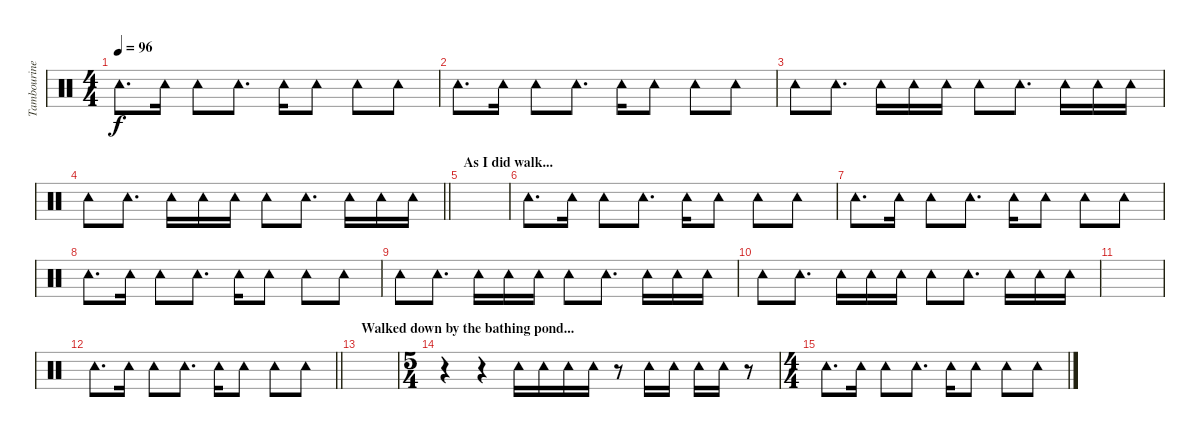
\track ("Tambourine" "Tambourine") {instrument percussion}
\staff {score}
\articulation defaults
\ts (4 4)
\tempo 96
\clef neutral
\ks c "Tambourine (hit)".8{d dy f} "Tambourine (hit)".16 "Tambourine (hit)".8 "Tambourine (hit)".8{d} "Tambourine (hit)".16 "Tambourine (hit)".8 "Tambourine (hit)".8 "Tambourine (hit)".8
|
"Tambourine (hit)".8{d} "Tambourine (hit)".16 "Tambourine (hit)".8 "Tambourine (hit)".8{d} "Tambourine (hit)".16 "Tambourine (hit)".8 "Tambourine (hit)".8 "Tambourine (hit)".8 |
"Tambourine (hit)".8 "Tambourine (hit)".8{d} "Tambourine (hit)".16 "Tambourine (hit)".16 "Tambourine (hit)".16 "Tambourine (hit)".8 "Tambourine (hit)".8{d} "Tambourine (hit)".16 "Tambourine (hit)".16 "Tambourine (hit)".16 |
\barLineRight lightlight "Tambourine (hit)".8 "Tambourine (hit)".8{d} "Tambourine (hit)".16 "Tambourine (hit)".16 "Tambourine (hit)".16 "Tambourine (hit)".8 "Tambourine (hit)".8{d} "Tambourine (hit)".16 "Tambourine (hit)".16 "Tambourine (hit)".16
|
\section ("" "As I did walk...")
|
"Tambourine (hit)".8{d} "Tambourine (hit)".16 "Tambourine (hit)".8 "Tambourine (hit)".8{d} "Tambourine (hit)".16 "Tambourine (hit)".8 "Tambourine (hit)".8 "Tambourine (hit)".8 |
"Tambourine (hit)".8{d} "Tambourine (hit)".16 "Tambourine (hit)".8 "Tambourine (hit)".8{d} "Tambourine (hit)".16 "Tambourine (hit)".8 "Tambourine (hit)".8 "Tambourine (hit)".8 |
"Tambourine (hit)".8{d} "Tambourine (hit)".16 "Tambourine (hit)".8 "Tambourine (hit)".8{d} "Tambourine (hit)".16 "Tambourine (hit)".8 "Tambourine (hit)".8 "Tambourine (hit)".8 |
"Tambourine (hit)".8 "Tambourine (hit)".8{d} "Tambourine (hit)".16 "Tambourine (hit)".16 "Tambourine (hit)".16 "Tambourine (hit)".8 "Tambourine (hit)".8{d} "Tambourine (hit)".16 "Tambourine (hit)".16 "Tambourine (hit)".16 |
"Tambourine (hit)".8 "Tambourine (hit)".8{d} "Tambourine (hit)".16 "Tambourine (hit)".16 "Tambourine (hit)".16 "Tambourine (hit)".8 "Tambourine (hit)".8{d} "Tambourine (hit)".16 "Tambourine (hit)".16 "Tambourine (hit)".16 |
|
\barLineRight lightlight "Tambourine (hit)".8{d} "Tambourine (hit)".16 "Tambourine (hit)".8 "Tambourine (hit)".8{d} "Tambourine (hit)".16 "Tambourine (hit)".8 "Tambourine (hit)".8 "Tambourine (hit)".8
|
\section ("" "Walked down by the bathing pond...")
|
\ts (5 4)
r.4 r.4 "Tambourine (hit)".16 "Tambourine (hit)".16 "Tambourine (hit)".16 "Tambourine (hit)".16 r.8 "Tambourine (hit)".16 "Tambourine (hit)".16 "Tambourine (hit)".16 "Tambourine (hit)".16 r.8 |
\ts (4 4)
"Tambourine (hit)".8{d} "Tambourine (hit)".16 "Tambourine (hit)".8 "Tambourine (hit)".8{d} "Tambourine (hit)".16 "Tambourine (hit)".8 "Tambourine (hit)".8 "Tambourine (hit)".8
